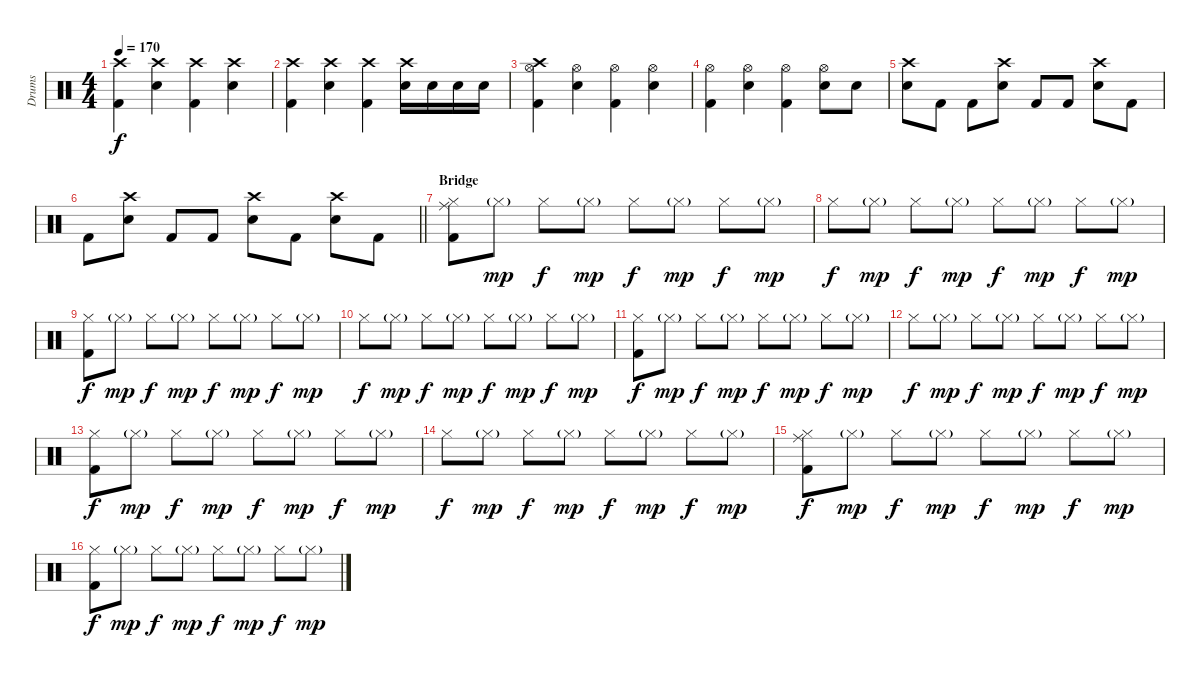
\track ("Drums" "Drums") {instrument percussion}
\staff {score}
\articulation defaults
\ts (4 4)
\tempo 170
\clef neutral
\ks c
("Crash high (hit)" "Kick (hit) 2").4{dy f} ("Crash high (hit)" "Electric Snare (hit)").4 ("Crash high (hit)" "Kick (hit) 2").4 ("Crash high (hit)" "Electric Snare (hit)").4 |
("Crash high (hit)" "Kick (hit) 2").4 ("Crash high (hit)" "Electric Snare (hit)").4 ("Crash high (hit)" "Kick (hit) 2").4 ("Crash high (hit)" "Electric Snare (hit)").16 "Electric Snare (hit)".16 "Electric Snare (hit)".16 "Electric Snare (hit)".16 |
("Crash high (hit)" "Hi-Hat (open)" "Kick (hit) 2").4 ("Hi-Hat (open)" "Electric Snare (hit)").4 ("Hi-Hat (open)" "Kick (hit) 2").4 ("Hi-Hat (open)" "Electric Snare (hit)").4 |
("Hi-Hat (open)" "Kick (hit) 2").4 ("Hi-Hat (open)" "Electric Snare (hit)").4 ("Hi-Hat (open)" "Kick (hit) 2").4 ("Hi-Hat (open)" "Electric Snare (hit)").8 "Electric Snare (hit)".8 |
("Crash high (hit)" "Electric Snare (hit)").8 "Kick (hit) 2".8 "Kick (hit) 2".8 ("Crash high (hit)" "Electric Snare (hit)").8 "Kick (hit) 2".8 "Kick (hit) 2".8 ("Crash high (hit)" "Electric Snare (hit)").8 "Kick (hit) 2".8 |
\barLineRight lightlight "Kick (hit) 2".8
("Crash high (hit)" "Electric Snare (hit)").8 "Kick (hit) 2".8 "Kick (hit) 2".8 ("Crash high (hit)" "Electric Snare (hit)").8 "Kick (hit) 2".8 ("Crash high (hit)" "Electric Snare (hit)").8 "Kick (hit) 2".8 |
\section ("" "Bridge")
("Ride (middle)" "Hi-Hat (closed)" "Kick (hit) 2").8 "Hi-Hat (closed)"{g}.8{dy mp} "Hi-Hat (closed)".8{dy f} "Hi-Hat (closed)"{g}.8{dy mp} "Hi-Hat (closed)".8{dy f} "Hi-Hat (closed)"{g}.8{dy mp} "Hi-Hat (closed)".8{dy f} "Hi-Hat (closed)"{g}.8{dy mp} |
"Hi-Hat (closed)".8{dy f} "Hi-Hat (closed)"{g}.8{dy mp} "Hi-Hat (closed)".8{dy f} "Hi-Hat (closed)"{g}.8{dy mp} "Hi-Hat (closed)".8{dy f} "Hi-Hat (closed)"{g}.8{dy mp} "Hi-Hat (closed)".8{dy f} "Hi-Hat (closed)"{g}.8{dy mp} |
("Hi-Hat (closed)" "Kick (hit) 2").8{dy f} "Hi-Hat (closed)"{g}.8{dy mp} "Hi-Hat (closed)".8{dy f} "Hi-Hat (closed)"{g}.8{dy mp} "Hi-Hat (closed)".8{dy f} "Hi-Hat (closed)"{g}.8{dy mp} "Hi-Hat (closed)".8{dy f} "Hi-Hat (closed)"{g}.8{dy mp} |
"Hi-Hat (closed)".8{dy f} "Hi-Hat (closed)"{g}.8{dy mp} "Hi-Hat (closed)".8{dy f} "Hi-Hat (closed)"{g}.8{dy mp} "Hi-Hat (closed)".8{dy f} "Hi-Hat (closed)"{g}.8{dy mp} "Hi-Hat (closed)".8{dy f} "Hi-Hat (closed)"{g}.8{dy mp} |
("Hi-Hat (closed)" "Kick (hit) 2").8{dy f} "Hi-Hat (closed)"{g}.8{dy mp} "Hi-Hat (closed)".8{dy f} "Hi-Hat (closed)"{g}.8{dy mp} "Hi-Hat (closed)".8{dy f} "Hi-Hat (closed)"{g}.8{dy mp} "Hi-Hat (closed)".8{dy f} "Hi-Hat (closed)"{g}.8{dy mp} |
"Hi-Hat (closed)".8{dy f} "Hi-Hat (closed)"{g}.8{dy mp} "Hi-Hat (closed)".8{dy f} "Hi-Hat (closed)"{g}.8{dy mp} "Hi-Hat (closed)".8{dy f} "Hi-Hat (closed)"{g}.8{dy mp} "Hi-Hat (closed)".8{dy f} "Hi-Hat (closed)"{g}.8{dy mp} |
("Hi-Hat (closed)" "Kick (hit) 2").8{dy f} "Hi-Hat (closed)"{g}.8{dy mp} "Hi-Hat (closed)".8{dy f} "Hi-Hat (closed)"{g}.8{dy mp} "Hi-Hat (closed)".8{dy f} "Hi-Hat (closed)"{g}.8{dy mp} "Hi-Hat (closed)".8{dy f} "Hi-Hat (closed)"{g}.8{dy mp} |
"Hi-Hat (closed)".8{dy f} "Hi-Hat (closed)"{g}.8{dy mp} "Hi-Hat (closed)".8{dy f} "Hi-Hat (closed)"{g}.8{dy mp} "Hi-Hat (closed)".8{dy f} "Hi-Hat (closed)"{g}.8{dy mp} "Hi-Hat (closed)".8{dy f} "Hi-Hat (closed)"{g}.8{dy mp} |
("Ride (middle)" "Hi-Hat (closed)" "Kick (hit) 2").8{dy f} "Hi-Hat (closed)"{g}.8{dy mp} "Hi-Hat (closed)".8{dy f} "Hi-Hat (closed)"{g}.8{dy mp} "Hi-Hat (closed)".8{dy f} "Hi-Hat (closed)"{g}.8{dy mp} "Hi-Hat (closed)".8{dy f} "Hi-Hat (closed)"{g}.8{dy mp} |
("Hi-Hat (closed)" "Kick (hit) 2").8{dy f} "Hi-Hat (closed)"{g}.8{dy mp} "Hi-Hat (closed)".8{dy f} "Hi-Hat (closed)"{g}.8{dy mp} "Hi-Hat (closed)".8{dy f} "Hi-Hat (closed)"{g}.8{dy mp} "Hi-Hat (closed)".8{dy f} "Hi-Hat (closed)"{g}.8{dy mp}
